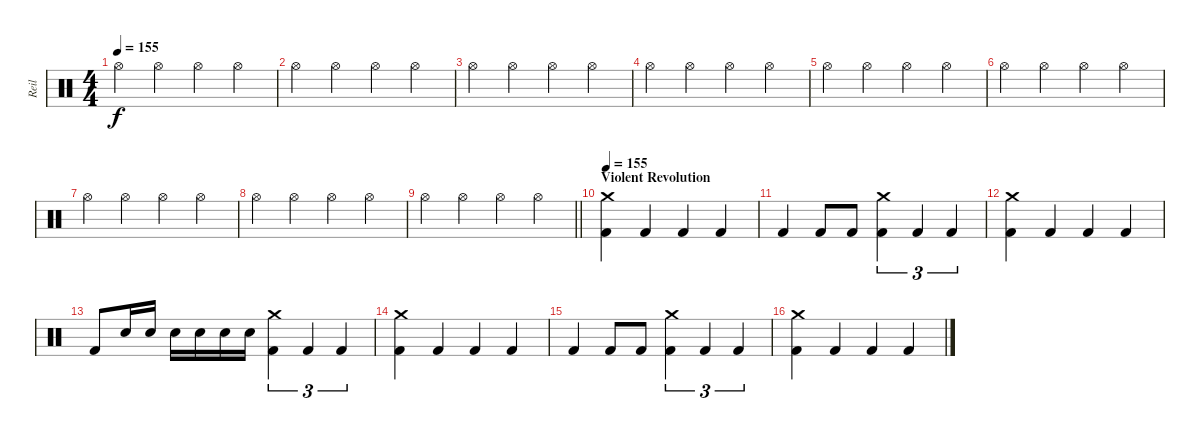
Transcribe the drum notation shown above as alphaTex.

\track ("Reil" "Reil") {instrument percussion}
\staff {score}
\articulation defaults
\ts (4 4)
\tempo 155
\clef neutral
\ks c "Hi-Hat (open)".4{dy f} "Hi-Hat (open)".4 "Hi-Hat (open)".4 "Hi-Hat (open)".4
|
"Hi-Hat (open)".4 "Hi-Hat (open)".4 "Hi-Hat (open)".4 "Hi-Hat (open)".4 |
"Hi-Hat (open)".4 "Hi-Hat (open)".4 "Hi-Hat (open)".4 "Hi-Hat (open)".4 |
"Hi-Hat (open)".4 "Hi-Hat (open)".4 "Hi-Hat (open)".4 "Hi-Hat (open)".4 |
"Hi-Hat (open)".4 "Hi-Hat (open)".4 "Hi-Hat (open)".4 "Hi-Hat (open)".4 |
"Hi-Hat (open)".4 "Hi-Hat (open)".4 "Hi-Hat (open)".4 "Hi-Hat (open)".4 |
"Hi-Hat (open)".4 "Hi-Hat (open)".4 "Hi-Hat (open)".4 "Hi-Hat (open)".4 |
"Hi-Hat (open)".4 "Hi-Hat (open)".4 "Hi-Hat (open)".4 "Hi-Hat (open)".4 |
\barLineRight lightlight "Hi-Hat (open)".4 "Hi-Hat (open)".4 "Hi-Hat (open)".4 "Hi-Hat (open)".4
|
\section ("" "Violent Revolution")
\tempo 155
("Crash medium (hit)" "Kick (hit) 2").4{volume 13} "Kick (hit) 2".4 "Kick (hit) 2".4 "Kick (hit) 2".4 |
"Kick (hit) 2".4 "Kick (hit) 2".8 "Kick (hit) 2".8 ("Crash medium (hit)" "Kick (hit) 2").4{tu (3 2)} "Kick (hit) 2".4{tu (3 2)} "Kick (hit) 2".4{tu (3 2)} |
("Crash medium (hit)" "Kick (hit) 2").4 "Kick (hit) 2".4 "Kick (hit) 2".4 "Kick (hit) 2".4 |
"Kick (hit) 2".8 "Electric Snare (hit)".16 "Electric Snare (hit)".16 "Electric Snare (hit)".16 "Electric Snare (hit)".16 "Electric Snare (hit)".16 "Electric Snare (hit)".16 ("Crash medium (hit)" "Kick (hit) 2").4{tu (3 2)} "Kick (hit) 2".4{tu (3 2)} "Kick (hit) 2".4{tu (3 2)} |
("Crash medium (hit)" "Kick (hit) 2").4 "Kick (hit) 2".4 "Kick (hit) 2".4 "Kick (hit) 2".4 |
"Kick (hit) 2".4 "Kick (hit) 2".8 "Kick (hit) 2".8 ("Crash medium (hit)" "Kick (hit) 2").4{tu (3 2)} "Kick (hit) 2".4{tu (3 2)} "Kick (hit) 2".4{tu (3 2)} |
("Crash medium (hit)" "Kick (hit) 2").4 "Kick (hit) 2".4 "Kick (hit) 2".4 "Kick (hit) 2".4
